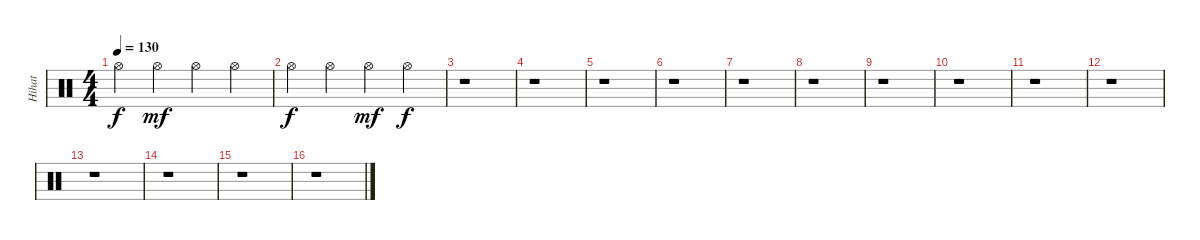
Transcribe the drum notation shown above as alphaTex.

\track ("Hihat" "Hihat") {instrument percussion}
\staff {score}
\articulation defaults
\ts (4 4)
\tempo 130
\clef neutral
\ks c "Hi-Hat (open)".4{dy f} "Hi-Hat (open)".4{dy mf} "Hi-Hat (open)".4 "Hi-Hat (open)".4
|
"Hi-Hat (open)".4{dy f} "Hi-Hat (open)".4 "Hi-Hat (open)".4{dy mf} "Hi-Hat (open)".4{dy f} |
r.1 |
r.1 |
r.1 |
r.1 |
r.1 |
r.1 |
r.1 |
r.1 |
r.1 |
r.1 |
r.1 |
r.1 |
r.1 |
r.1
